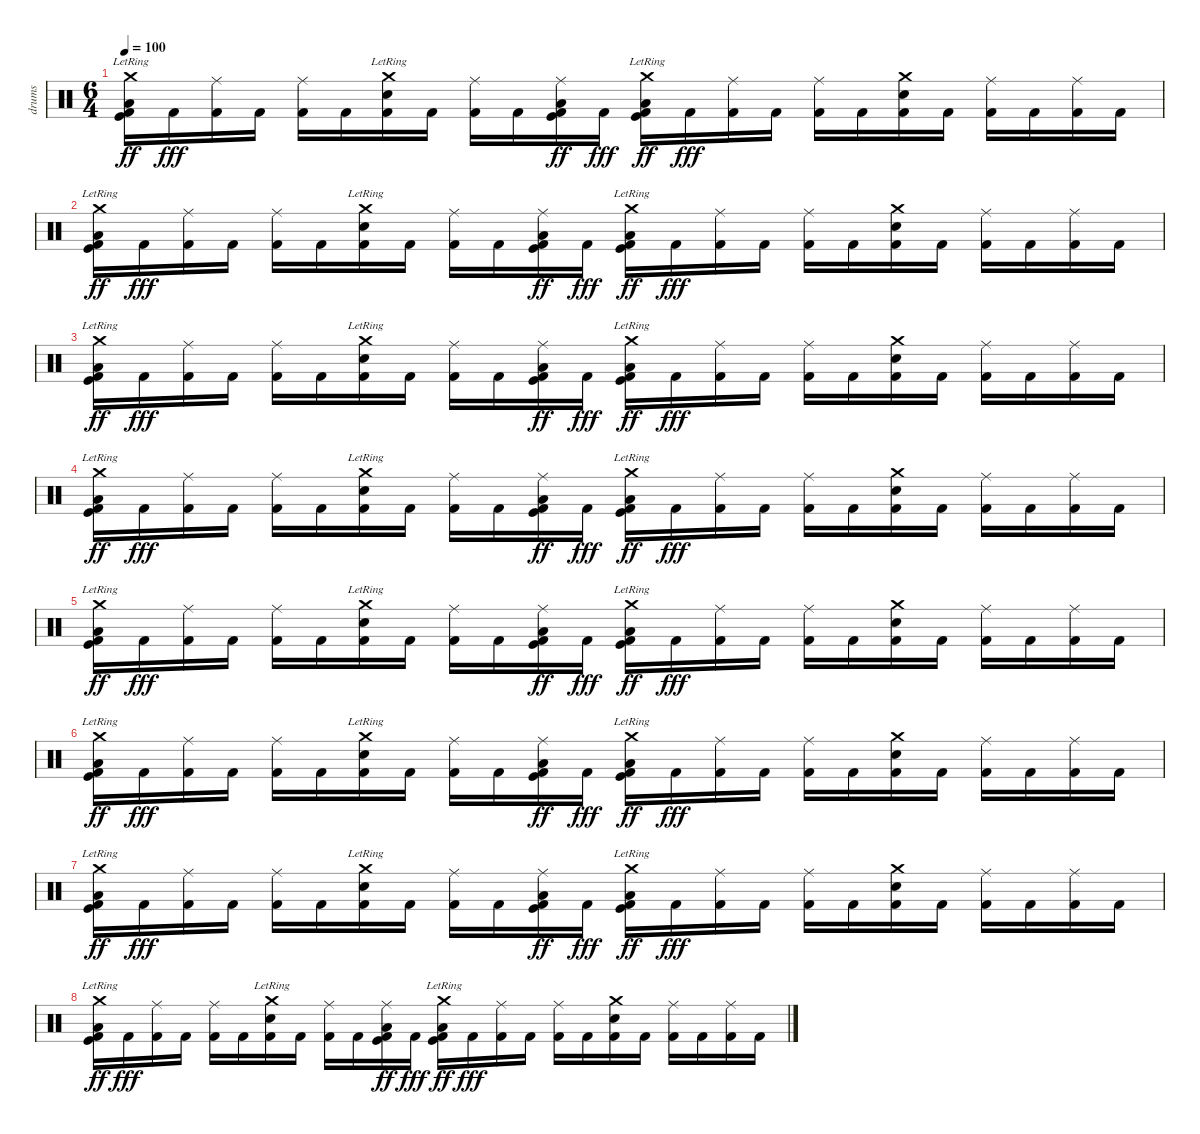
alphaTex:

\track ("drums" "drums") {instrument percussion}
\staff {score}
\articulation defaults
\ts (6 4)
\tempo 100
\clef neutral
\ks c
("Crash medium (hit)"{lr} "Kick (hit)" "Low Floor Tom (hit)" "Kick (hit) 2").16{dy ff} "Kick (hit) 2".16{dy fff} ("Ride (middle)" "Kick (hit) 2").16 "Kick (hit) 2".16 ("Ride (middle)" "Kick (hit) 2").16 "Kick (hit) 2".16 ("Crash medium (hit)"{lr} "Electric Snare (hit)" "Kick (hit) 2").16 "Kick (hit) 2".16 ("Ride (middle)" "Kick (hit) 2").16 "Kick (hit) 2".16 ("Ride (middle)" "Kick (hit)" "Low Floor Tom (hit)" "Kick (hit) 2").16{dy ff} "Kick (hit) 2".16{dy fff} ("Crash medium (hit)"{lr} "Kick (hit)" "Low Floor Tom (hit)" "Kick (hit) 2").16{dy ff} "Kick (hit) 2".16{dy fff} ("Ride (middle)" "Kick (hit) 2").16 "Kick (hit) 2".16 ("Ride (middle)" "Kick (hit) 2").16 "Kick (hit) 2".16 ("Crash medium (hit)" "Electric Snare (hit)" "Kick (hit) 2").16 "Kick (hit) 2".16 ("Ride (middle)" "Kick (hit) 2").16 "Kick (hit) 2".16 ("Ride (middle)" "Kick (hit) 2").16 "Kick (hit) 2".16 |
("Crash medium (hit)"{lr} "Kick (hit)" "Low Floor Tom (hit)" "Kick (hit) 2").16{dy ff volume 8} "Kick (hit) 2".16{dy fff} ("Ride (middle)" "Kick (hit) 2").16 "Kick (hit) 2".16 ("Ride (middle)" "Kick (hit) 2").16 "Kick (hit) 2".16 ("Crash medium (hit)"{lr} "Electric Snare (hit)" "Kick (hit) 2").16 "Kick (hit) 2".16 ("Ride (middle)" "Kick (hit) 2").16 "Kick (hit) 2".16 ("Ride (middle)" "Kick (hit)" "Low Floor Tom (hit)" "Kick (hit) 2").16{dy ff} "Kick (hit) 2".16{dy fff} ("Crash medium (hit)"{lr} "Kick (hit)" "Low Floor Tom (hit)" "Kick (hit) 2").16{dy ff} "Kick (hit) 2".16{dy fff} ("Ride (middle)" "Kick (hit) 2").16 "Kick (hit) 2".16 ("Ride (middle)" "Kick (hit) 2").16 "Kick (hit) 2".16 ("Crash medium (hit)" "Electric Snare (hit)" "Kick (hit) 2").16 "Kick (hit) 2".16 ("Ride (middle)" "Kick (hit) 2").16 "Kick (hit) 2".16 ("Ride (middle)" "Kick (hit) 2").16 "Kick (hit) 2".16 |
("Crash medium (hit)"{lr} "Kick (hit)" "Low Floor Tom (hit)" "Kick (hit) 2").16{dy ff} "Kick (hit) 2".16{dy fff} ("Ride (middle)" "Kick (hit) 2").16 "Kick (hit) 2".16 ("Ride (middle)" "Kick (hit) 2").16 "Kick (hit) 2".16 ("Crash medium (hit)"{lr} "Electric Snare (hit)" "Kick (hit) 2").16 "Kick (hit) 2".16 ("Ride (middle)" "Kick (hit) 2").16 "Kick (hit) 2".16 ("Ride (middle)" "Kick (hit)" "Low Floor Tom (hit)" "Kick (hit) 2").16{dy ff} "Kick (hit) 2".16{dy fff} ("Crash medium (hit)"{lr} "Kick (hit)" "Low Floor Tom (hit)" "Kick (hit) 2").16{dy ff} "Kick (hit) 2".16{dy fff} ("Ride (middle)" "Kick (hit) 2").16 "Kick (hit) 2".16 ("Ride (middle)" "Kick (hit) 2").16 "Kick (hit) 2".16 ("Crash medium (hit)" "Electric Snare (hit)" "Kick (hit) 2").16 "Kick (hit) 2".16 ("Ride (middle)" "Kick (hit) 2").16 "Kick (hit) 2".16 ("Ride (middle)" "Kick (hit) 2").16 "Kick (hit) 2".16 |
("Crash medium (hit)"{lr} "Kick (hit)" "Low Floor Tom (hit)" "Kick (hit) 2").16{dy ff volume 7} "Kick (hit) 2".16{dy fff} ("Ride (middle)" "Kick (hit) 2").16 "Kick (hit) 2".16 ("Ride (middle)" "Kick (hit) 2").16 "Kick (hit) 2".16 ("Crash medium (hit)"{lr} "Electric Snare (hit)" "Kick (hit) 2").16 "Kick (hit) 2".16 ("Ride (middle)" "Kick (hit) 2").16 "Kick (hit) 2".16 ("Ride (middle)" "Kick (hit)" "Low Floor Tom (hit)" "Kick (hit) 2").16{dy ff} "Kick (hit) 2".16{dy fff} ("Crash medium (hit)"{lr} "Kick (hit)" "Low Floor Tom (hit)" "Kick (hit) 2").16{dy ff} "Kick (hit) 2".16{dy fff} ("Ride (middle)" "Kick (hit) 2").16 "Kick (hit) 2".16 ("Ride (middle)" "Kick (hit) 2").16 "Kick (hit) 2".16 ("Crash medium (hit)" "Electric Snare (hit)" "Kick (hit) 2").16 "Kick (hit) 2".16 ("Ride (middle)" "Kick (hit) 2").16 "Kick (hit) 2".16 ("Ride (middle)" "Kick (hit) 2").16 "Kick (hit) 2".16 |
("Crash medium (hit)"{lr} "Kick (hit)" "Low Floor Tom (hit)" "Kick (hit) 2").16{dy ff} "Kick (hit) 2".16{dy fff} ("Ride (middle)" "Kick (hit) 2").16 "Kick (hit) 2".16 ("Ride (middle)" "Kick (hit) 2").16 "Kick (hit) 2".16 ("Crash medium (hit)"{lr} "Electric Snare (hit)" "Kick (hit) 2").16 "Kick (hit) 2".16 ("Ride (middle)" "Kick (hit) 2").16 "Kick (hit) 2".16 ("Ride (middle)" "Kick (hit)" "Low Floor Tom (hit)" "Kick (hit) 2").16{dy ff} "Kick (hit) 2".16{dy fff} ("Crash medium (hit)"{lr} "Kick (hit)" "Low Floor Tom (hit)" "Kick (hit) 2").16{dy ff} "Kick (hit) 2".16{dy fff} ("Ride (middle)" "Kick (hit) 2").16 "Kick (hit) 2".16 ("Ride (middle)" "Kick (hit) 2").16 "Kick (hit) 2".16 ("Crash medium (hit)" "Electric Snare (hit)" "Kick (hit) 2").16 "Kick (hit) 2".16 ("Ride (middle)" "Kick (hit) 2").16 "Kick (hit) 2".16 ("Ride (middle)" "Kick (hit) 2").16 "Kick (hit) 2".16 |
("Crash medium (hit)"{lr} "Kick (hit)" "Low Floor Tom (hit)" "Kick (hit) 2").16{dy ff volume 5} "Kick (hit) 2".16{dy fff} ("Ride (middle)" "Kick (hit) 2").16 "Kick (hit) 2".16 ("Ride (middle)" "Kick (hit) 2").16 "Kick (hit) 2".16 ("Crash medium (hit)"{lr} "Electric Snare (hit)" "Kick (hit) 2").16 "Kick (hit) 2".16 ("Ride (middle)" "Kick (hit) 2").16 "Kick (hit) 2".16 ("Ride (middle)" "Kick (hit)" "Low Floor Tom (hit)" "Kick (hit) 2").16{dy ff} "Kick (hit) 2".16{dy fff} ("Crash medium (hit)"{lr} "Kick (hit)" "Low Floor Tom (hit)" "Kick (hit) 2").16{dy ff} "Kick (hit) 2".16{dy fff} ("Ride (middle)" "Kick (hit) 2").16 "Kick (hit) 2".16 ("Ride (middle)" "Kick (hit) 2").16 "Kick (hit) 2".16 ("Crash medium (hit)" "Electric Snare (hit)" "Kick (hit) 2").16 "Kick (hit) 2".16 ("Ride (middle)" "Kick (hit) 2").16 "Kick (hit) 2".16 ("Ride (middle)" "Kick (hit) 2").16 "Kick (hit) 2".16 |
("Crash medium (hit)"{lr} "Kick (hit)" "Low Floor Tom (hit)" "Kick (hit) 2").16{dy ff} "Kick (hit) 2".16{dy fff} ("Ride (middle)" "Kick (hit) 2").16 "Kick (hit) 2".16 ("Ride (middle)" "Kick (hit) 2").16 "Kick (hit) 2".16 ("Crash medium (hit)"{lr} "Electric Snare (hit)" "Kick (hit) 2").16 "Kick (hit) 2".16 ("Ride (middle)" "Kick (hit) 2").16 "Kick (hit) 2".16 ("Ride (middle)" "Kick (hit)" "Low Floor Tom (hit)" "Kick (hit) 2").16{dy ff} "Kick (hit) 2".16{dy fff} ("Crash medium (hit)"{lr} "Kick (hit)" "Low Floor Tom (hit)" "Kick (hit) 2").16{dy ff} "Kick (hit) 2".16{dy fff} ("Ride (middle)" "Kick (hit) 2").16 "Kick (hit) 2".16 ("Ride (middle)" "Kick (hit) 2").16 "Kick (hit) 2".16 ("Crash medium (hit)" "Electric Snare (hit)" "Kick (hit) 2").16 "Kick (hit) 2".16 ("Ride (middle)" "Kick (hit) 2").16 "Kick (hit) 2".16 ("Ride (middle)" "Kick (hit) 2").16 "Kick (hit) 2".16 |
("Crash medium (hit)"{lr} "Kick (hit)" "Low Floor Tom (hit)" "Kick (hit) 2").16{dy ff volume 3} "Kick (hit) 2".16{dy fff} ("Ride (middle)" "Kick (hit) 2").16 "Kick (hit) 2".16 ("Ride (middle)" "Kick (hit) 2").16 "Kick (hit) 2".16 ("Crash medium (hit)"{lr} "Electric Snare (hit)" "Kick (hit) 2").16 "Kick (hit) 2".16 ("Ride (middle)" "Kick (hit) 2").16 "Kick (hit) 2".16 ("Ride (middle)" "Kick (hit)" "Low Floor Tom (hit)" "Kick (hit) 2").16{dy ff} "Kick (hit) 2".16{dy fff} ("Crash medium (hit)"{lr} "Kick (hit)" "Low Floor Tom (hit)" "Kick (hit) 2").16{dy ff} "Kick (hit) 2".16{dy fff} ("Ride (middle)" "Kick (hit) 2").16 "Kick (hit) 2".16 ("Ride (middle)" "Kick (hit) 2").16 "Kick (hit) 2".16 ("Crash medium (hit)" "Electric Snare (hit)" "Kick (hit) 2").16 "Kick (hit) 2".16 ("Ride (middle)" "Kick (hit) 2").16 "Kick (hit) 2".16 ("Ride (middle)" "Kick (hit) 2").16 "Kick (hit) 2".16
